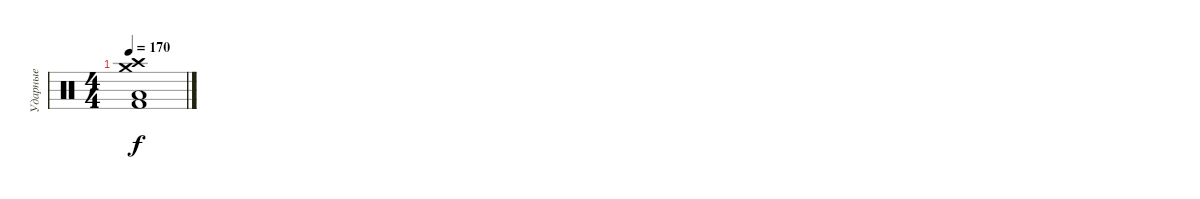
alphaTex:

\track ("Ударные" "Ударные") {instrument percussion}
\staff {score}
\articulation defaults
\ts (4 4)
\tempo 170
\clef neutral
\ks c
("Crash medium (hit)" "Crash high (hit)" "Kick (hit) 2" "Low Tom (hit)").1{dy f}
